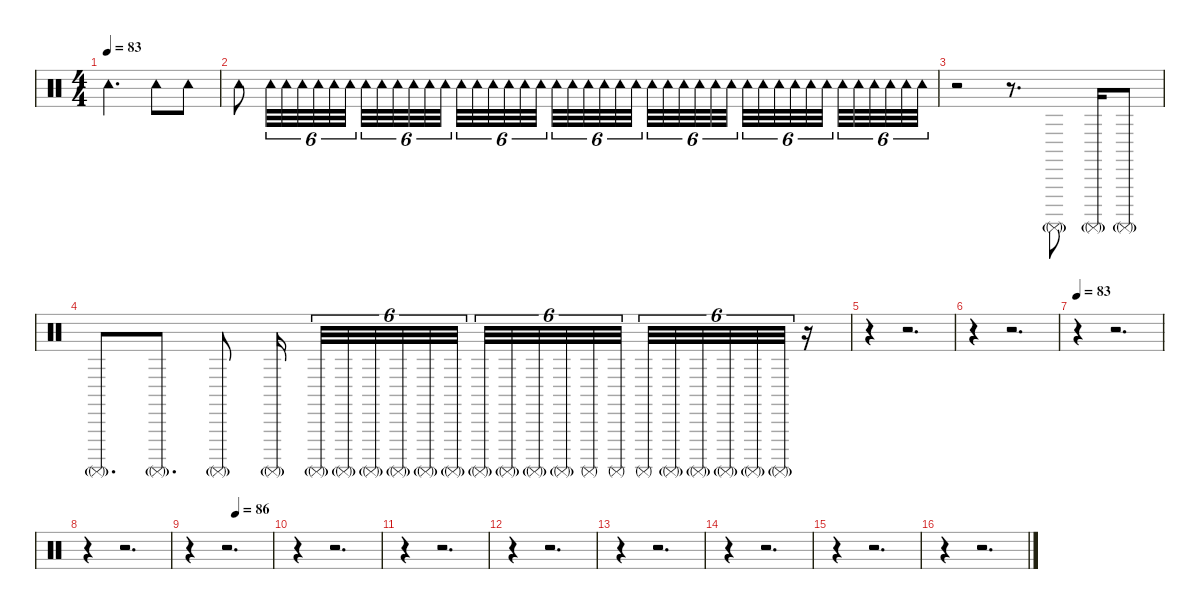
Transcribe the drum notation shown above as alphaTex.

\defaultSystemsLayout 4
\hideDynamics
\bracketExtendMode nobrackets
\singleTrackTrackNamePolicy hidden
\multiTrackTrackNamePolicy hidden
\firstSystemTrackNameMode fullname
\firstSystemTrackNameOrientation horizontal
\otherSystemsTrackNameOrientation horizontal
\track ("Percussions" "drm.") {instrument percussion}
\staff {score}
\articulation defaults
\ts (4 4)
\tempo 83
\clef neutral
\ks c "Tambourine (hit)".2{d dy f beam Down} "Tambourine (hit)".8{dy ff beam Down} "Tambourine (hit)".8{dy f beam Down}
|
"Tambourine (hit)".8{beam Down} "Tambourine (hit)".32{tu (6 4) beam Down} "Tambourine (hit)".32{tu (6 4) dy mf beam Down} "Tambourine (hit)".32{tu (6 4) dy mp beam Down} "Tambourine (hit)".32{tu (6 4) dy p beam Down} "Tambourine (hit)".32{tu (6 4) beam Down} "Tambourine (hit)".32{tu (6 4) beam Down} "Tambourine (hit)".32{tu (6 4) beam Down} "Tambourine (hit)".32{tu (6 4) beam Down} "Tambourine (hit)".32{tu (6 4) dy mp beam Down} "Tambourine (hit)".32{tu (6 4) beam Down} "Tambourine (hit)".32{tu (6 4) beam Down} "Tambourine (hit)".32{tu (6 4) dy p beam Down} "Tambourine (hit)".32{tu (6 4) dy f beam Down} "Tambourine (hit)".32{tu (6 4) dy mf beam Down} "Tambourine (hit)".32{tu (6 4) dy mp beam Down} "Tambourine (hit)".32{tu (6 4) dy p beam Down} "Tambourine (hit)".32{tu (6 4) beam Down} "Tambourine (hit)".32{tu (6 4) beam Down} "Tambourine (hit)".32{tu (6 4) beam Down} "Tambourine (hit)".32{tu (6 4) beam Down} "Tambourine (hit)".32{tu (6 4) beam Down} "Tambourine (hit)".32{tu (6 4) beam Down} "Tambourine (hit)".32{tu (6 4) beam Down} "Tambourine (hit)".32{tu (6 4) beam Down} "Tambourine (hit)".32{tu (6 4) dy pp beam Down} "Tambourine (hit)".32{tu (6 4) beam Down} "Tambourine (hit)".32{tu (6 4) beam Down} "Tambourine (hit)".32{tu (6 4) beam Down} "Tambourine (hit)".32{tu (6 4) beam Down} "Tambourine (hit)".32{tu (6 4) beam Down} "Tambourine (hit)".32{tu (6 4) beam Down} "Tambourine (hit)".32{tu (6 4) beam Down} "Tambourine (hit)".32{tu (6 4) beam Down} "Tambourine (hit)".32{tu (6 4) beam Down} "Tambourine (hit)".32{tu (6 4) beam Down} "Tambourine (hit)".32{tu (6 4) beam Down} "Tambourine (hit)".32{tu (6 4) dy ppp beam Down} "Tambourine (hit)".32{tu (6 4) beam Down} "Tambourine (hit)".32{tu (6 4) beam Down} "Tambourine (hit)".32{tu (6 4) beam Down} "Tambourine (hit)".32{tu (6 4) beam Down} "Tambourine (hit)".32{tu (6 4) beam Down} |
r.2{beam Down} r.8{d beam Down} "Surdo (mute)"{g}.8{dy mp beam Up} "Surdo (mute)"{g}.16{dy mf beam Up} "Surdo (mute)"{g}.8{dy f beam Up} |
"Surdo (mute)"{g}.8{d beam Up} "Surdo (mute)"{g}.8{d dy mf beam Up} "Surdo (mute)"{g}.8{dy mp beam Up} "Surdo (mute)"{g}.16{dy mf beam Up} "Surdo (mute)"{g}.32{tu (6 4) dy mp beam Up} "Surdo (mute)"{g}.32{tu (6 4) beam Up} "Surdo (mute)"{g}.32{tu (6 4) dy mf beam Up} "Surdo (mute)"{g}.32{tu (6 4) beam Up} "Surdo (mute)"{g}.32{tu (6 4) dy f beam Up} "Surdo (mute)"{g}.32{tu (6 4) beam Up} "Surdo (mute)"{g}.32{tu (6 4) beam Up} "Surdo (mute)"{g}.32{tu (6 4) dy ff beam Up} "Surdo (mute)"{g}.32{tu (6 4) beam Up} "Surdo (mute)"{g}.32{tu (6 4) beam Up} "Surdo (mute)".32{tu (6 4) dy f beam Up} "Surdo (mute)".32{tu (6 4) beam Up} "Surdo (mute)".32{tu (6 4) beam Up} "Surdo (mute)"{g}.32{tu (6 4) dy ff beam Up} "Surdo (mute)"{g}.32{tu (6 4) beam Up} "Surdo (mute)"{g}.32{tu (6 4) dy f beam Up} "Surdo (mute)"{g}.32{tu (6 4) beam Up} "Surdo (mute)"{g}.32{tu (6 4) dy mf beam Up} r.16{beam Up} |
r.4{beam Down} r.2{d beam Down} |
r.4{beam Down} r.2{d beam Down} |
\tempo 83
r.4{beam Down} r.2{d beam Down} |
r.4{beam Down} r.2{d beam Down} |
\tempo (86 0.5625)
r.4{beam Down} r.2{d beam Down} |
r.4{beam Down} r.2{d beam Down} |
r.4{beam Down} r.2{d beam Down} |
r.4{beam Down} r.2{d beam Down} |
r.4{beam Down} r.2{d beam Down} |
r.4{beam Down} r.2{d beam Down} |
r.4{beam Down} r.2{d beam Down} |
r.4{beam Down} r.2{d beam Down}
